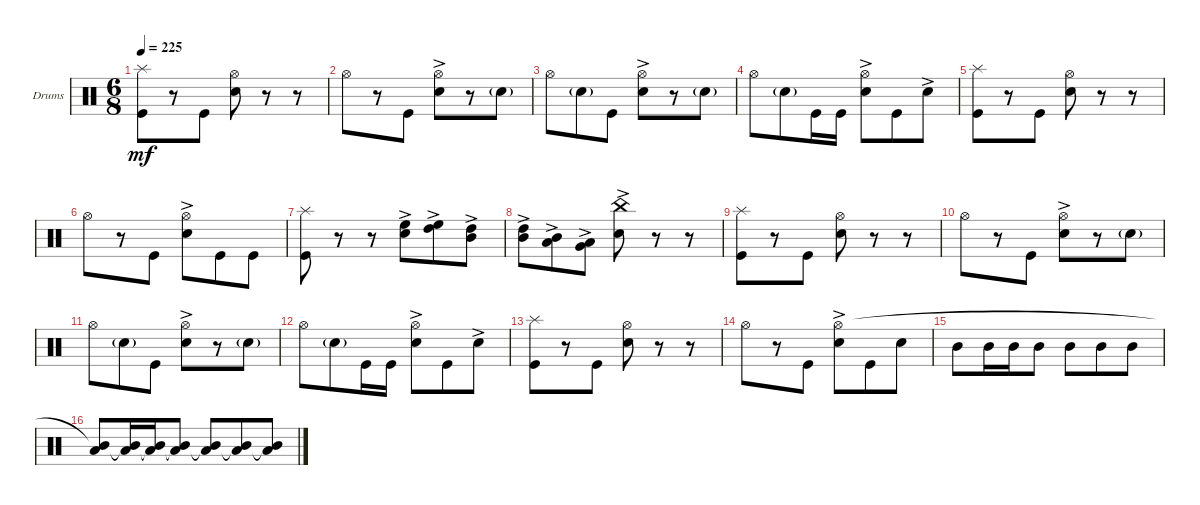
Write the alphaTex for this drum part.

\bracketExtendMode groupsimilarinstruments
\firstSystemTrackNameOrientation horizontal
\otherSystemsTrackNameOrientation horizontal
\track ("Drumkit" "Drums") {solo instrument percussion}
\staff {score}
\articulation defaults
\ts (6 8)
\tempo 225
\clef neutral
\ks c
("Kick (hit)" "Splash (hit)").8{dy mf} r.8 "Kick (hit)".8 ("Snare (hit) 2" "Hi-Hat (open)").8 r.8 r.8 |
"Hi-Hat (open)".8 r.8 "Kick (hit)".8 ("Snare (hit) 2"{ac} "Hi-Hat (open)").8 r.8 "Snare (hit) 2"{g}.8 |
"Hi-Hat (open)".8 "Snare (hit) 2"{g}.8 "Kick (hit)".8 ("Snare (hit) 2"{ac} "Hi-Hat (open)").8 r.8 "Snare (hit) 2"{g}.8 |
"Hi-Hat (open)".8 "Snare (hit) 2"{g}.8 "Kick (hit)".16 "Kick (hit)".16 ("Snare (hit) 2"{ac} "Hi-Hat (open)").8 "Kick (hit)".8 "Snare (hit) 2"{ac}.8 |
("Kick (hit)" "Splash (hit)").8 r.8 "Kick (hit)".8 ("Snare (hit) 2" "Hi-Hat (open)").8 r.8 r.8 |
"Hi-Hat (open)".8 r.8 "Kick (hit)".8 ("Snare (hit) 2"{ac} "Hi-Hat (open)").8 "Kick (hit)".8 "Kick (hit)".8 |
("Kick (hit)" "Splash (hit)").8 r.8 r.8 ("High Floor Tom (hit)"{ac} "Snare (hit) 2"{ac}).8 ("High Tom (hit)"{ac} "High Floor Tom (hit)"{ac}).8 ("Mid Tom (hit)"{ac} "High Tom (hit)"{ac}).8 |
("Mid Tom (hit)"{ac} "High Tom (hit)"{ac}).8 ("Low Tom (hit)"{ac} "Mid Tom (hit)"{ac}).8 ("Very Low Tom (hit)"{ac} "Low Tom (hit)"{ac}).8 ("Snare (hit) 2"{ac} "China (hit)"{ac}).8 r.8 r.8 |
("Kick (hit)" "Splash (hit)").8 r.8 "Kick (hit)".8 ("Snare (hit) 2" "Hi-Hat (open)").8 r.8 r.8 |
"Hi-Hat (open)".8 r.8 "Kick (hit)".8 ("Snare (hit) 2"{ac} "Hi-Hat (open)").8 r.8 "Snare (hit) 2"{g}.8 |
"Hi-Hat (open)".8 "Snare (hit) 2"{g}.8 "Kick (hit)".8 ("Snare (hit) 2"{ac} "Hi-Hat (open)").8 r.8 "Snare (hit) 2"{g}.8 |
"Hi-Hat (open)".8 "Snare (hit) 2"{g}.8 "Kick (hit)".16 "Kick (hit)".16 ("Snare (hit) 2"{ac} "Hi-Hat (open)").8 "Kick (hit)".8 "Snare (hit) 2"{ac}.8 |
("Kick (hit)" "Splash (hit)").8 r.8 "Kick (hit)".8 ("Snare (hit) 2" "Hi-Hat (open)").8 r.8 r.8 |
"Hi-Hat (open)".8 r.8 "Kick (hit)".8 ("Snare (hit) 2"{ac} "Hi-Hat (open)").8 "Kick (hit)".8 "Snare (hit) 2".8 |
"Mid Tom (hit)".8 "Mid Tom (hit)".16 "Mid Tom (hit)".16 "Mid Tom (hit)".8 "Mid Tom (hit)".8 "Mid Tom (hit)".8 "Mid Tom (hit)".8 |
("Low Tom (hit)" "Mid Tom (hit)"{t}).8 ("Low Tom (hit)" "Mid Tom (hit)"{t}).16 ("Low Tom (hit)" "Mid Tom (hit)"{t}).16 ("Low Tom (hit)" "Mid Tom (hit)"{t}).8 ("Low Tom (hit)" "Mid Tom (hit)"{t}).8 ("Low Tom (hit)" "Mid Tom (hit)"{t}).8 ("Low Tom (hit)" "Mid Tom (hit)"{t}).8
